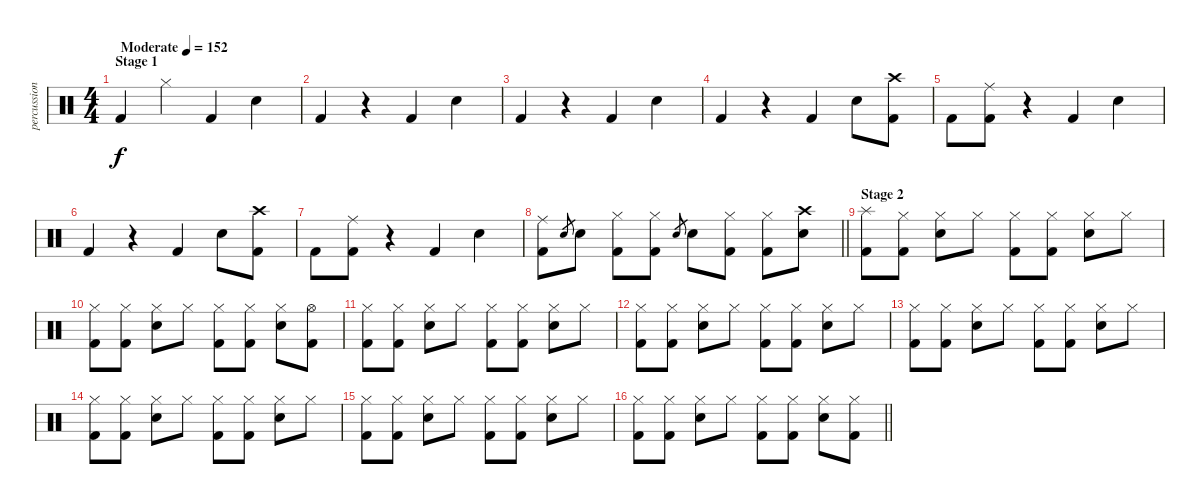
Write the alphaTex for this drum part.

\track ("percussion" "percussion") {instrument percussion}
\staff {score}
\articulation defaults
\ts (4 4)
\section ("" "Stage 1")
\tempo (152 "Moderate")
\clef neutral
\ks c "Kick (hit) 2".4{dy f} "Hi-Hat (closed)".4 "Kick (hit) 2".4 "Electric Snare (hit)".4
|
"Kick (hit) 2".4 r.4 "Kick (hit) 2".4 "Electric Snare (hit)".4 |
"Kick (hit) 2".4 r.4 "Kick (hit) 2".4 "Electric Snare (hit)".4 |
"Kick (hit) 2".4 r.4 "Kick (hit) 2".4 "Electric Snare (hit)".8 ("Crash high (hit)" "Kick (hit) 2").8 |
"Kick (hit) 2".8 ("Ride (middle)" "Kick (hit) 2").8 r.4 "Kick (hit) 2".4 "Electric Snare (hit)".4 |
"Kick (hit) 2".4 r.4 "Kick (hit) 2".4 "Electric Snare (hit)".8 ("Crash high (hit)" "Kick (hit) 2").8 |
"Kick (hit) 2".8 ("Ride (middle)" "Kick (hit) 2").8 r.4 "Kick (hit) 2".4 "Electric Snare (hit)".4 |
\barLineRight lightlight
("Ride (middle)" "Kick (hit) 2").8 "Electric Snare (hit)".8{gr} "Electric Snare (hit)".8 ("Hi-Hat (closed)" "Kick (hit) 2").8 ("Hi-Hat (closed)" "Kick (hit) 2").8 "Electric Snare (hit)".8{gr} "Electric Snare (hit)".8 ("Hi-Hat (closed)" "Kick (hit) 2").8 ("Hi-Hat (closed)" "Kick (hit) 2").8 ("Crash high (hit)" "Electric Snare (hit)").8 |
\section ("" "Stage 2")
("Splash (hit)" "Kick (hit) 2").8 ("Hi-Hat (closed)" "Kick (hit) 2").8 ("Electric Snare (hit)" "Hi-Hat (closed)").8 "Hi-Hat (closed)".8 ("Hi-Hat (closed)" "Kick (hit) 2").8 ("Hi-Hat (closed)" "Kick (hit) 2").8 ("Electric Snare (hit)" "Hi-Hat (closed)").8 "Hi-Hat (closed)".8 |
("Hi-Hat (closed)" "Kick (hit) 2").8 ("Hi-Hat (closed)" "Kick (hit) 2").8 ("Electric Snare (hit)" "Hi-Hat (closed)").8 "Hi-Hat (closed)".8 ("Hi-Hat (closed)" "Kick (hit) 2").8 ("Hi-Hat (closed)" "Kick (hit) 2").8 ("Electric Snare (hit)" "Hi-Hat (closed)").8 ("Hi-Hat (open)" "Kick (hit) 2").8 |
("Hi-Hat (closed)" "Kick (hit) 2").8 ("Hi-Hat (closed)" "Kick (hit) 2").8 ("Electric Snare (hit)" "Hi-Hat (closed)").8 "Hi-Hat (closed)".8 ("Hi-Hat (closed)" "Kick (hit) 2").8 ("Hi-Hat (closed)" "Kick (hit) 2").8 ("Electric Snare (hit)" "Hi-Hat (closed)").8 "Hi-Hat (closed)".8 |
("Hi-Hat (closed)" "Kick (hit) 2").8 ("Hi-Hat (closed)" "Kick (hit) 2").8 ("Electric Snare (hit)" "Hi-Hat (closed)").8 "Hi-Hat (closed)".8 ("Hi-Hat (closed)" "Kick (hit) 2").8 ("Hi-Hat (closed)" "Kick (hit) 2").8 ("Electric Snare (hit)" "Hi-Hat (closed)").8 "Hi-Hat (closed)".8 |
("Hi-Hat (closed)" "Kick (hit) 2").8 ("Hi-Hat (closed)" "Kick (hit) 2").8 ("Electric Snare (hit)" "Hi-Hat (closed)").8 "Hi-Hat (closed)".8 ("Hi-Hat (closed)" "Kick (hit) 2").8 ("Hi-Hat (closed)" "Kick (hit) 2").8 ("Electric Snare (hit)" "Hi-Hat (closed)").8 "Hi-Hat (closed)".8 |
("Hi-Hat (closed)" "Kick (hit) 2").8 ("Hi-Hat (closed)" "Kick (hit) 2").8 ("Electric Snare (hit)" "Hi-Hat (closed)").8 "Hi-Hat (closed)".8 ("Hi-Hat (closed)" "Kick (hit) 2").8 ("Hi-Hat (closed)" "Kick (hit) 2").8 ("Electric Snare (hit)" "Hi-Hat (closed)").8 "Hi-Hat (closed)".8 |
("Hi-Hat (closed)" "Kick (hit) 2").8 ("Hi-Hat (closed)" "Kick (hit) 2").8 ("Electric Snare (hit)" "Hi-Hat (closed)").8 "Hi-Hat (closed)".8 ("Hi-Hat (closed)" "Kick (hit) 2").8 ("Hi-Hat (closed)" "Kick (hit) 2").8 ("Electric Snare (hit)" "Hi-Hat (closed)").8 "Hi-Hat (closed)".8 |
\barLineRight lightlight
("Hi-Hat (closed)" "Kick (hit) 2").8 ("Hi-Hat (closed)" "Kick (hit) 2").8 ("Electric Snare (hit)" "Hi-Hat (closed)").8 "Hi-Hat (closed)".8 ("Hi-Hat (closed)" "Kick (hit) 2").8 ("Hi-Hat (closed)" "Kick (hit) 2").8 ("Electric Snare (hit)" "Hi-Hat (closed)").8 ("Hi-Hat (closed)" "Kick (hit) 2").8
